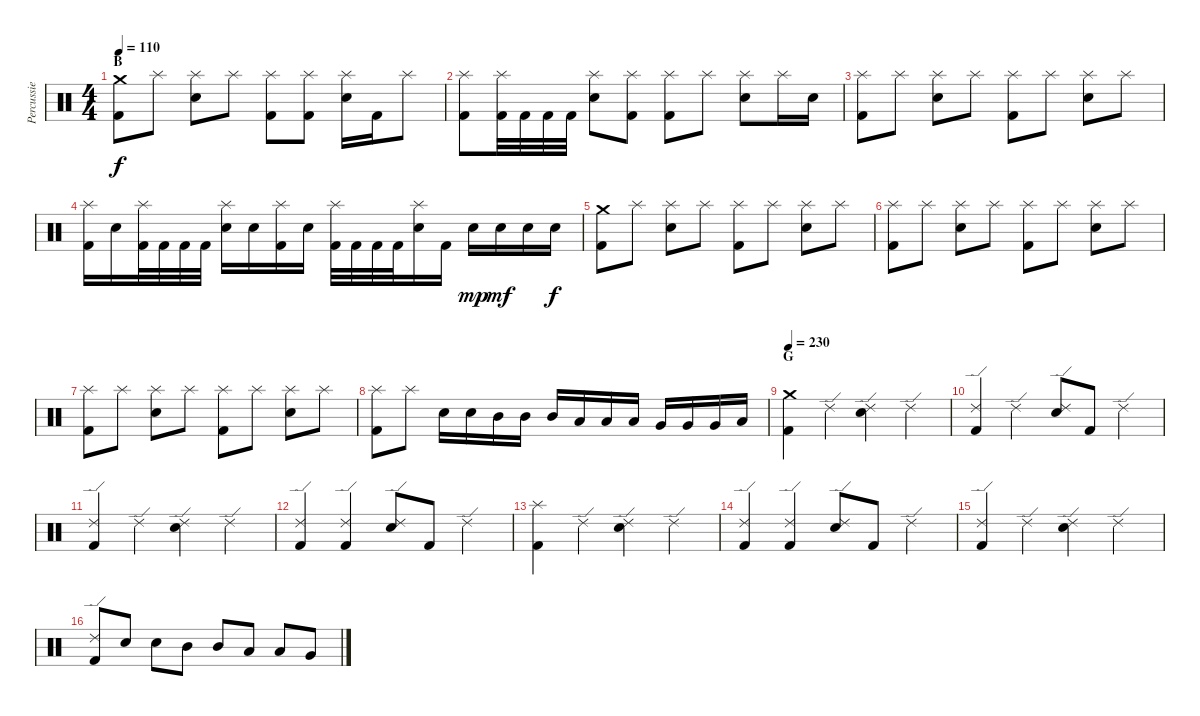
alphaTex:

\track ("Percussie" "Percussie") {instrument percussion}
\staff {score}
\articulation defaults
\ts (4 4)
\section ("" "B")
\tempo 110
\clef neutral
\ks c
("Crash medium (hit)" "Kick (hit) 2").8{dy f} "Splash (hit)".8 ("Splash (hit)" "Electric Snare (hit)").8 "Splash (hit)".8 ("Splash (hit)" "Kick (hit) 2").8 ("Splash (hit)" "Kick (hit) 2").8 ("Splash (hit)" "Electric Snare (hit)").16 "Kick (hit) 2".16 "Splash (hit)".8 |
("Splash (hit)" "Kick (hit) 2").8 ("Splash (hit)" "Kick (hit) 2").32 "Kick (hit) 2".32 "Kick (hit) 2".32 "Kick (hit) 2".32 ("Splash (hit)" "Electric Snare (hit)").8 ("Splash (hit)" "Kick (hit) 2").8 ("Splash (hit)" "Kick (hit) 2").8 "Splash (hit)".8 ("Splash (hit)" "Electric Snare (hit)").8 "Splash (hit)".16 "Electric Snare (hit)".16 |
("Splash (hit)" "Kick (hit) 2").8 "Splash (hit)".8 ("Splash (hit)" "Electric Snare (hit)").8 "Splash (hit)".8 ("Splash (hit)" "Kick (hit) 2").8 "Splash (hit)".8 ("Splash (hit)" "Electric Snare (hit)").8 "Splash (hit)".8 |
("Splash (hit)" "Kick (hit) 2").16 "Electric Snare (hit)".16 ("Splash (hit)" "Kick (hit) 2").32 "Kick (hit) 2".32 "Kick (hit) 2".32 "Kick (hit) 2".32 ("Splash (hit)" "Electric Snare (hit)").16 "Electric Snare (hit)".16 ("Splash (hit)" "Kick (hit) 2").16 "Electric Snare (hit)".16 ("Splash (hit)" "Kick (hit) 2").32 "Kick (hit) 2".32 "Kick (hit) 2".32 "Kick (hit) 2".32 ("Splash (hit)" "Electric Snare (hit)").16 "Kick (hit) 2".16 "Electric Snare (hit)".16{dy mp} "Electric Snare (hit)".16{dy mf} "Electric Snare (hit)".16 "Electric Snare (hit)".16{dy f} |
("Crash medium (hit)" "Kick (hit) 2").8 "Splash (hit)".8 ("Splash (hit)" "Electric Snare (hit)").8 "Splash (hit)".8 ("Splash (hit)" "Kick (hit) 2").8 "Splash (hit)".8 ("Splash (hit)" "Electric Snare (hit)").8 "Splash (hit)".8 |
("Splash (hit)" "Kick (hit) 2").8 "Splash (hit)".8 ("Splash (hit)" "Electric Snare (hit)").8 "Splash (hit)".8 ("Splash (hit)" "Kick (hit) 2").8 "Splash (hit)".8 ("Splash (hit)" "Electric Snare (hit)").8 "Splash (hit)".8 |
("Splash (hit)" "Kick (hit) 2").8 "Splash (hit)".8 ("Splash (hit)" "Electric Snare (hit)").8 "Splash (hit)".8 ("Splash (hit)" "Kick (hit) 2").8 "Splash (hit)".8 ("Splash (hit)" "Electric Snare (hit)").8 "Splash (hit)".8 |
("Splash (hit)" "Kick (hit) 2").8 "Splash (hit)".8 "Electric Snare (hit)".16 "Electric Snare (hit)".16 "Mid Tom (hit)".16 "Mid Tom (hit)".16 "Mid Tom (hit)".16 "Low Tom (hit)".16 "Low Tom (hit)".16 "Low Tom (hit)".16 "Very Low Tom (hit)".16 "Very Low Tom (hit)".16 "Very Low Tom (hit)".16 "Low Floor Tom (hit)".16 |
\section ("" "G")
\tempo 230
("Crash medium (hit)" "Kick (hit) 2").4 "Ride (edge) 2".4 ("Ride (edge) 2" "Electric Snare (hit)").4 "Ride (edge) 2".4 |
("Ride (edge) 2" "Kick (hit) 2").4 "Ride (edge) 2".4 ("Ride (edge) 2" "Electric Snare (hit)").8 "Kick (hit) 2".8 "Ride (edge) 2".4 |
("Ride (edge) 2" "Kick (hit) 2").4 "Ride (edge) 2".4 ("Ride (edge) 2" "Electric Snare (hit)").4 "Ride (edge) 2".4 |
("Ride (edge) 2" "Kick (hit) 2").4 ("Ride (edge) 2" "Kick (hit) 2").4 ("Ride (edge) 2" "Electric Snare (hit)").8 "Kick (hit) 2".8 "Ride (edge) 2".4 |
("Splash (hit)" "Kick (hit) 2").4 "Ride (edge) 2".4 ("Ride (edge) 2" "Electric Snare (hit)").4 "Ride (edge) 2".4 |
("Ride (edge) 2" "Kick (hit) 2").4 ("Ride (edge) 2" "Kick (hit) 2").4 ("Ride (edge) 2" "Electric Snare (hit)").8 "Kick (hit) 2".8 "Ride (edge) 2".4 |
("Ride (edge) 2" "Kick (hit) 2").4 "Ride (edge) 2".4 ("Ride (edge) 2" "Electric Snare (hit)").4 "Ride (edge) 2".4 |
("Ride (edge) 2" "Kick (hit) 2").8 "Electric Snare (hit)".8 "Electric Snare (hit)".8 "Mid Tom (hit)".8 "Mid Tom (hit)".8 "Low Tom (hit)".8 "Low Tom (hit)".8 "Very Low Tom (hit)".8
